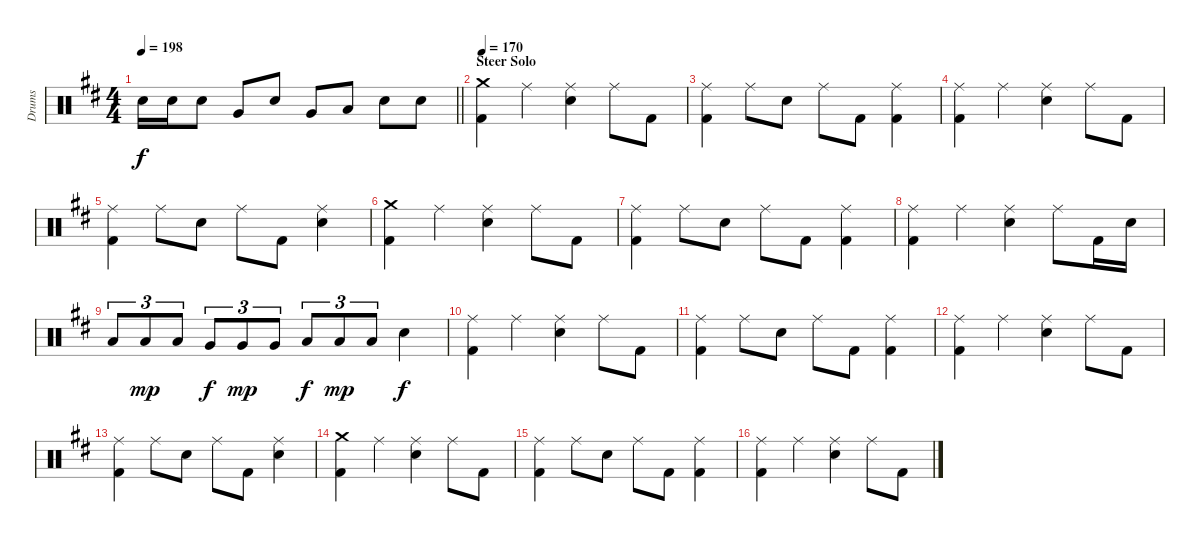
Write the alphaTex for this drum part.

\track ("Drums" "Drums") {instrument percussion}
\staff {score}
\articulation defaults
\ts (4 4)
\tempo 198
\clef neutral
\barLineRight lightlight
\ks d "Snare (hit) 2".16{dy f} "Snare (hit) 2".16 "Snare (hit) 2".8 "Very Low Tom (hit)".8 "Snare (hit) 2".8 "Very Low Tom (hit)".8 "Low Floor Tom (hit)".8 "Snare (hit) 2".8 "Snare (hit) 2".8
|
\section ("" "Steer Solo")
\tempo 170
("Crash medium (hit)" "Kick (hit) 2").4 "Ride (middle)".4 ("Ride (middle)" "Snare (hit) 2").4 "Ride (middle)".8 "Kick (hit) 2".8 |
("Ride (middle)" "Kick (hit) 2").4 "Ride (middle)".8 "Snare (hit) 2".8 "Ride (middle)".8 "Kick (hit) 2".8 ("Ride (middle)" "Kick (hit) 2").4 |
("Ride (middle)" "Kick (hit) 2").4 "Ride (middle)".4 ("Ride (middle)" "Snare (hit) 2").4 "Ride (middle)".8 "Kick (hit) 2".8 |
("Ride (middle)" "Kick (hit) 2").4 "Ride (middle)".8 "Snare (hit) 2".8 "Ride (middle)".8 "Kick (hit) 2".8 ("Ride (middle)" "Snare (hit) 2").4 |
("Crash medium (hit)" "Kick (hit) 2").4 "Ride (middle)".4 ("Ride (middle)" "Snare (hit) 2").4 "Ride (middle)".8 "Kick (hit) 2".8 |
("Ride (middle)" "Kick (hit) 2").4 "Ride (middle)".8 "Snare (hit) 2".8 "Ride (middle)".8 "Kick (hit) 2".8 ("Ride (middle)" "Kick (hit) 2").4 |
("Ride (middle)" "Kick (hit) 2").4 "Ride (middle)".4 ("Ride (middle)" "Snare (hit) 2").4 "Ride (middle)".8 "Kick (hit) 2".16 "Snare (hit) 2".16 |
"Low Tom (hit)".8{tu (3 2)} "Low Tom (hit)".8{tu (3 2) dy mp} "Low Tom (hit)".8{tu (3 2)} "Very Low Tom (hit)".8{tu (3 2) dy f} "Very Low Tom (hit)".8{tu (3 2) dy mp} "Very Low Tom (hit)".8{tu (3 2)} "Low Floor Tom (hit)".8{tu (3 2) dy f} "Low Floor Tom (hit)".8{tu (3 2) dy mp} "Low Floor Tom (hit)".8{tu (3 2)} "Snare (hit) 2".4{dy f} |
("Ride (middle)" "Kick (hit) 2").4 "Ride (middle)".4 ("Ride (middle)" "Snare (hit) 2").4 "Ride (middle)".8 "Kick (hit) 2".8 |
("Ride (middle)" "Kick (hit) 2").4 "Ride (middle)".8 "Snare (hit) 2".8 "Ride (middle)".8 "Kick (hit) 2".8 ("Ride (middle)" "Kick (hit) 2").4 |
("Ride (middle)" "Kick (hit) 2").4 "Ride (middle)".4 ("Ride (middle)" "Snare (hit) 2").4 "Ride (middle)".8 "Kick (hit) 2".8 |
("Ride (middle)" "Kick (hit) 2").4 "Ride (middle)".8 "Snare (hit) 2".8 "Ride (middle)".8 "Kick (hit) 2".8 ("Ride (middle)" "Snare (hit) 2").4 |
("Crash medium (hit)" "Kick (hit) 2").4 "Ride (middle)".4 ("Ride (middle)" "Snare (hit) 2").4 "Ride (middle)".8 "Kick (hit) 2".8 |
("Ride (middle)" "Kick (hit) 2").4 "Ride (middle)".8 "Snare (hit) 2".8 "Ride (middle)".8 "Kick (hit) 2".8 ("Ride (middle)" "Kick (hit) 2").4 |
("Ride (middle)" "Kick (hit) 2").4 "Ride (middle)".4 ("Ride (middle)" "Snare (hit) 2").4 "Ride (middle)".8 "Kick (hit) 2".8
